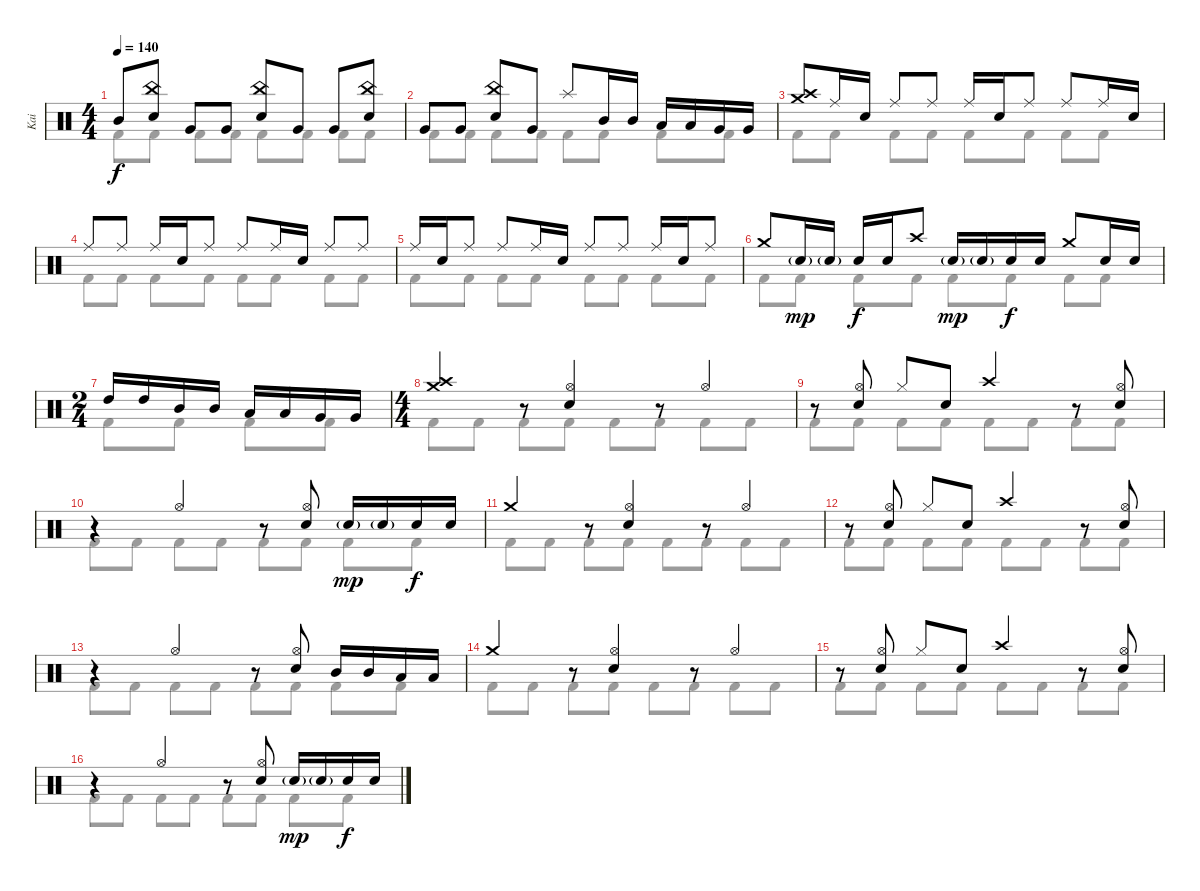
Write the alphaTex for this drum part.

\track ("Kai" "Kai") {instrument percussion}
\staff {score}
\articulation defaults
\voice
\ts (4 4)
\tempo 140
\clef neutral
\ks c "Mid Tom (hit)".8{dy f}
("China (hit)" "Snare (hit) 2").8 "Very Low Tom (hit)".8 "Very Low Tom (hit)".8 ("China (hit)" "Snare (hit) 2").8 "Very Low Tom (hit)".8 "Very Low Tom (hit)".8 ("China (hit)" "Snare (hit) 2").8 |
"Very Low Tom (hit)".8 "Very Low Tom (hit)".8 ("China (hit)" "Snare (hit) 2").8 "Very Low Tom (hit)".8 "Splash (hit)".8 "Mid Tom (hit)".16 "Mid Tom (hit)".16 "Low Tom (hit)".16 "Low Tom (hit)".16 "Very Low Tom (hit)".16 "Very Low Tom (hit)".16 |
("Crash medium (hit)" "Crash high (hit)").8 "Ride (middle)".16 "Snare (hit) 2".16 "Ride (middle)".8 "Ride (middle)".8 "Ride (middle)".16 "Snare (hit) 2".16 "Ride (middle)".8 "Ride (middle)".8 "Ride (middle)".16 "Snare (hit) 2".16 |
"Ride (middle)".8 "Ride (middle)".8 "Ride (middle)".16 "Snare (hit) 2".16 "Ride (middle)".8 "Ride (middle)".8 "Ride (middle)".16 "Snare (hit) 2".16 "Ride (middle)".8 "Ride (middle)".8 |
"Ride (middle)".16 "Snare (hit) 2".16 "Ride (middle)".8 "Ride (middle)".8 "Ride (middle)".16 "Snare (hit) 2".16 "Ride (middle)".8 "Ride (middle)".8 "Ride (middle)".16 "Snare (hit) 2".16 "Ride (middle)".8 |
"Crash medium (hit)".8 "Snare (hit) 2"{g}.16{dy mp} "Snare (hit) 2"{g}.16 "Snare (hit) 2".16{dy f} "Snare (hit) 2".16 "Crash high (hit)".8 "Snare (hit) 2"{g}.16{dy mp} "Snare (hit) 2"{g}.16 "Snare (hit) 2".16{dy f} "Snare (hit) 2".16 "Crash medium (hit)".8 "Snare (hit) 2".16 "Snare (hit) 2".16 |
\ts (2 4)
"High Tom (hit)".16 "High Tom (hit)".16 "Mid Tom (hit)".16 "Mid Tom (hit)".16 "Low Tom (hit)".16 "Low Tom (hit)".16 "Very Low Tom (hit)".16 "Very Low Tom (hit)".16 |
\ts (4 4)
("Crash medium (hit)" "Crash high (hit)").4 r.8 ("Hi-Hat (open)" "Snare (hit) 2").4 r.8 "Hi-Hat (open)".4 |
r.8 ("Hi-Hat (open)" "Snare (hit) 2").8 "Hi-Hat (closed)".8 "Snare (hit) 2".8 "Crash high (hit)".4 r.8 ("Hi-Hat (open)" "Snare (hit) 2").8 |
r.4 "Hi-Hat (open)".4 r.8 ("Hi-Hat (open)" "Snare (hit) 2").8 "Snare (hit) 2"{g}.16{dy mp} "Snare (hit) 2"{g}.16 "Snare (hit) 2".16{dy f} "Snare (hit) 2".16 |
"Crash medium (hit)".4 r.8 ("Hi-Hat (open)" "Snare (hit) 2").4 r.8 "Hi-Hat (open)".4 |
r.8 ("Hi-Hat (open)" "Snare (hit) 2").8 "Hi-Hat (closed)".8 "Snare (hit) 2".8 "Crash high (hit)".4 r.8 ("Hi-Hat (open)" "Snare (hit) 2").8 |
r.4 "Hi-Hat (open)".4 r.8 ("Hi-Hat (open)" "Snare (hit) 2").8 "Mid Tom (hit)".16 "Mid Tom (hit)".16 "Low Tom (hit)".16 "Low Tom (hit)".16 |
"Crash medium (hit)".4 r.8 ("Hi-Hat (open)" "Snare (hit) 2").4 r.8 "Hi-Hat (open)".4 |
r.8 ("Hi-Hat (open)" "Snare (hit) 2").8 "Hi-Hat (closed)".8 "Snare (hit) 2".8 "Crash high (hit)".4 r.8 ("Hi-Hat (open)" "Snare (hit) 2").8 |
r.4 "Hi-Hat (open)".4 r.8 ("Hi-Hat (open)" "Snare (hit) 2").8 "Snare (hit) 2"{g}.16{dy mp} "Snare (hit) 2"{g}.16 "Snare (hit) 2".16{dy f} "Snare (hit) 2".16
\voice
\clef neutral
\ottava regular
\simile none
\ks c "Kick (hit) 2".8{dy f} "Kick (hit) 2".8 "Kick (hit) 2".8 "Kick (hit) 2".8 "Kick (hit) 2".8 "Kick (hit) 2".8 "Kick (hit) 2".8 "Kick (hit) 2".8
|
"Kick (hit) 2".8 "Kick (hit) 2".8 "Kick (hit) 2".8 "Kick (hit) 2".8 "Kick (hit) 2".8 "Kick (hit) 2".8 "Kick (hit) 2".8 "Kick (hit) 2".8 |
"Kick (hit) 2".8 "Kick (hit) 2".8 "Kick (hit) 2".8 "Kick (hit) 2".8 "Kick (hit) 2".8 "Kick (hit) 2".8 "Kick (hit) 2".8 "Kick (hit) 2".8 |
"Kick (hit) 2".8 "Kick (hit) 2".8 "Kick (hit) 2".8 "Kick (hit) 2".8 "Kick (hit) 2".8 "Kick (hit) 2".8 "Kick (hit) 2".8 "Kick (hit) 2".8 |
"Kick (hit) 2".8 "Kick (hit) 2".8 "Kick (hit) 2".8 "Kick (hit) 2".8 "Kick (hit) 2".8 "Kick (hit) 2".8 "Kick (hit) 2".8 "Kick (hit) 2".8 |
"Kick (hit) 2".8 "Kick (hit) 2".8 "Kick (hit) 2".8 "Kick (hit) 2".8 "Kick (hit) 2".8 "Kick (hit) 2".8 "Kick (hit) 2".8 "Kick (hit) 2".8 |
"Kick (hit) 2".8 "Kick (hit) 2".8 "Kick (hit) 2".8 "Kick (hit) 2".8 |
"Kick (hit) 2".8 "Kick (hit) 2".8 "Kick (hit) 2".8 "Kick (hit) 2".8 "Kick (hit) 2".8 "Kick (hit) 2".8 "Kick (hit) 2".8 "Kick (hit) 2".8 |
"Kick (hit) 2".8 "Kick (hit) 2".8 "Kick (hit) 2".8 "Kick (hit) 2".8 "Kick (hit) 2".8 "Kick (hit) 2".8 "Kick (hit) 2".8 "Kick (hit) 2".8 |
"Kick (hit) 2".8 "Kick (hit) 2".8 "Kick (hit) 2".8 "Kick (hit) 2".8 "Kick (hit) 2".8 "Kick (hit) 2".8 "Kick (hit) 2".8 "Kick (hit) 2".8 |
"Kick (hit) 2".8 "Kick (hit) 2".8 "Kick (hit) 2".8 "Kick (hit) 2".8 "Kick (hit) 2".8 "Kick (hit) 2".8 "Kick (hit) 2".8 "Kick (hit) 2".8 |
"Kick (hit) 2".8 "Kick (hit) 2".8 "Kick (hit) 2".8 "Kick (hit) 2".8 "Kick (hit) 2".8 "Kick (hit) 2".8 "Kick (hit) 2".8 "Kick (hit) 2".8 |
"Kick (hit) 2".8 "Kick (hit) 2".8 "Kick (hit) 2".8 "Kick (hit) 2".8 "Kick (hit) 2".8 "Kick (hit) 2".8 "Kick (hit) 2".8 "Kick (hit) 2".8 |
"Kick (hit) 2".8 "Kick (hit) 2".8 "Kick (hit) 2".8 "Kick (hit) 2".8 "Kick (hit) 2".8 "Kick (hit) 2".8 "Kick (hit) 2".8 "Kick (hit) 2".8 |
"Kick (hit) 2".8 "Kick (hit) 2".8 "Kick (hit) 2".8 "Kick (hit) 2".8 "Kick (hit) 2".8 "Kick (hit) 2".8 "Kick (hit) 2".8 "Kick (hit) 2".8 |
"Kick (hit) 2".8 "Kick (hit) 2".8 "Kick (hit) 2".8 "Kick (hit) 2".8 "Kick (hit) 2".8 "Kick (hit) 2".8 "Kick (hit) 2".8 "Kick (hit) 2".8
